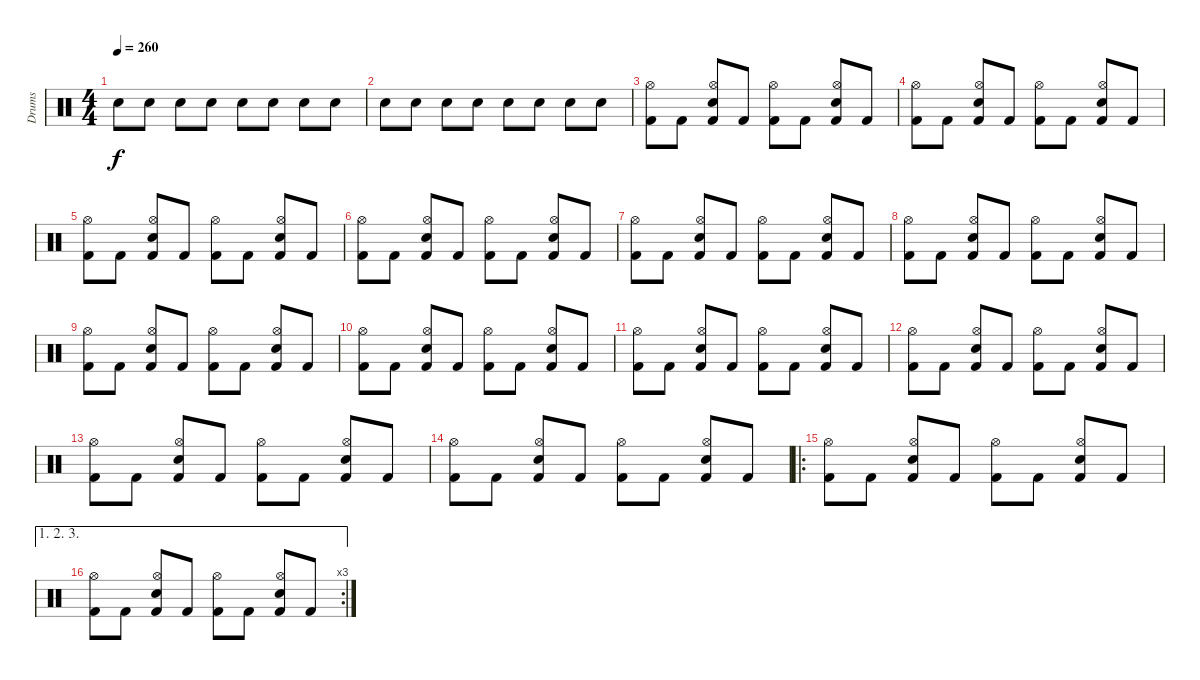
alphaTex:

\track ("Drums" "Drums") {instrument percussion}
\staff {score}
\articulation defaults
\ts (4 4)
\tempo 260
\clef neutral
\ks c "Snare (hit) 2".8{dy f} "Snare (hit) 2".8 "Snare (hit) 2".8 "Snare (hit) 2".8 "Snare (hit) 2".8 "Snare (hit) 2".8 "Snare (hit) 2".8 "Snare (hit) 2".8
|
"Snare (hit) 2".8 "Snare (hit) 2".8 "Snare (hit) 2".8 "Snare (hit) 2".8 "Snare (hit) 2".8 "Snare (hit) 2".8 "Snare (hit) 2".8 "Snare (hit) 2".8 |
("Hi-Hat (open)" "Kick (hit) 2").8 "Kick (hit) 2".8 ("Hi-Hat (open)" "Snare (hit) 2" "Kick (hit) 2").8 "Kick (hit) 2".8 ("Hi-Hat (open)" "Kick (hit) 2").8 "Kick (hit) 2".8 ("Hi-Hat (open)" "Snare (hit) 2" "Kick (hit) 2").8 "Kick (hit) 2".8 |
("Hi-Hat (open)" "Kick (hit) 2").8 "Kick (hit) 2".8 ("Hi-Hat (open)" "Snare (hit) 2" "Kick (hit) 2").8 "Kick (hit) 2".8 ("Hi-Hat (open)" "Kick (hit) 2").8 "Kick (hit) 2".8 ("Hi-Hat (open)" "Snare (hit) 2" "Kick (hit) 2").8 "Kick (hit) 2".8 |
("Hi-Hat (open)" "Kick (hit) 2").8 "Kick (hit) 2".8 ("Hi-Hat (open)" "Snare (hit) 2" "Kick (hit) 2").8 "Kick (hit) 2".8 ("Hi-Hat (open)" "Kick (hit) 2").8 "Kick (hit) 2".8 ("Hi-Hat (open)" "Snare (hit) 2" "Kick (hit) 2").8 "Kick (hit) 2".8 |
("Hi-Hat (open)" "Kick (hit) 2").8 "Kick (hit) 2".8 ("Hi-Hat (open)" "Snare (hit) 2" "Kick (hit) 2").8 "Kick (hit) 2".8 ("Hi-Hat (open)" "Kick (hit) 2").8 "Kick (hit) 2".8 ("Hi-Hat (open)" "Snare (hit) 2" "Kick (hit) 2").8 "Kick (hit) 2".8 |
("Hi-Hat (open)" "Kick (hit) 2").8 "Kick (hit) 2".8 ("Hi-Hat (open)" "Snare (hit) 2" "Kick (hit) 2").8 "Kick (hit) 2".8 ("Hi-Hat (open)" "Kick (hit) 2").8 "Kick (hit) 2".8 ("Hi-Hat (open)" "Snare (hit) 2" "Kick (hit) 2").8 "Kick (hit) 2".8 |
("Hi-Hat (open)" "Kick (hit) 2").8 "Kick (hit) 2".8 ("Hi-Hat (open)" "Snare (hit) 2" "Kick (hit) 2").8 "Kick (hit) 2".8 ("Hi-Hat (open)" "Kick (hit) 2").8 "Kick (hit) 2".8 ("Hi-Hat (open)" "Snare (hit) 2" "Kick (hit) 2").8 "Kick (hit) 2".8 |
("Hi-Hat (open)" "Kick (hit) 2").8 "Kick (hit) 2".8 ("Hi-Hat (open)" "Snare (hit) 2" "Kick (hit) 2").8 "Kick (hit) 2".8 ("Hi-Hat (open)" "Kick (hit) 2").8 "Kick (hit) 2".8 ("Hi-Hat (open)" "Snare (hit) 2" "Kick (hit) 2").8 "Kick (hit) 2".8 |
("Hi-Hat (open)" "Kick (hit) 2").8 "Kick (hit) 2".8 ("Hi-Hat (open)" "Snare (hit) 2" "Kick (hit) 2").8 "Kick (hit) 2".8 ("Hi-Hat (open)" "Kick (hit) 2").8 "Kick (hit) 2".8 ("Hi-Hat (open)" "Snare (hit) 2" "Kick (hit) 2").8 "Kick (hit) 2".8 |
("Hi-Hat (open)" "Kick (hit) 2").8 "Kick (hit) 2".8 ("Hi-Hat (open)" "Snare (hit) 2" "Kick (hit) 2").8 "Kick (hit) 2".8 ("Hi-Hat (open)" "Kick (hit) 2").8 "Kick (hit) 2".8 ("Hi-Hat (open)" "Snare (hit) 2" "Kick (hit) 2").8 "Kick (hit) 2".8 |
("Hi-Hat (open)" "Kick (hit) 2").8 "Kick (hit) 2".8 ("Hi-Hat (open)" "Snare (hit) 2" "Kick (hit) 2").8 "Kick (hit) 2".8 ("Hi-Hat (open)" "Kick (hit) 2").8 "Kick (hit) 2".8 ("Hi-Hat (open)" "Snare (hit) 2" "Kick (hit) 2").8 "Kick (hit) 2".8 |
("Hi-Hat (open)" "Kick (hit) 2").8 "Kick (hit) 2".8 ("Hi-Hat (open)" "Snare (hit) 2" "Kick (hit) 2").8 "Kick (hit) 2".8 ("Hi-Hat (open)" "Kick (hit) 2").8 "Kick (hit) 2".8 ("Hi-Hat (open)" "Snare (hit) 2" "Kick (hit) 2").8 "Kick (hit) 2".8 |
("Hi-Hat (open)" "Kick (hit) 2").8 "Kick (hit) 2".8 ("Hi-Hat (open)" "Snare (hit) 2" "Kick (hit) 2").8 "Kick (hit) 2".8 ("Hi-Hat (open)" "Kick (hit) 2").8 "Kick (hit) 2".8 ("Hi-Hat (open)" "Snare (hit) 2" "Kick (hit) 2").8 "Kick (hit) 2".8 |
\ro
("Hi-Hat (open)" "Kick (hit) 2").8 "Kick (hit) 2".8 ("Hi-Hat (open)" "Snare (hit) 2" "Kick (hit) 2").8 "Kick (hit) 2".8 ("Hi-Hat (open)" "Kick (hit) 2").8 "Kick (hit) 2".8 ("Hi-Hat (open)" "Snare (hit) 2" "Kick (hit) 2").8 "Kick (hit) 2".8 |
\ae (1 2 3)
\rc 3
("Hi-Hat (open)" "Kick (hit) 2").8 "Kick (hit) 2".8 ("Hi-Hat (open)" "Snare (hit) 2" "Kick (hit) 2").8 "Kick (hit) 2".8 ("Hi-Hat (open)" "Kick (hit) 2").8 "Kick (hit) 2".8 ("Hi-Hat (open)" "Snare (hit) 2" "Kick (hit) 2").8 "Kick (hit) 2".8
